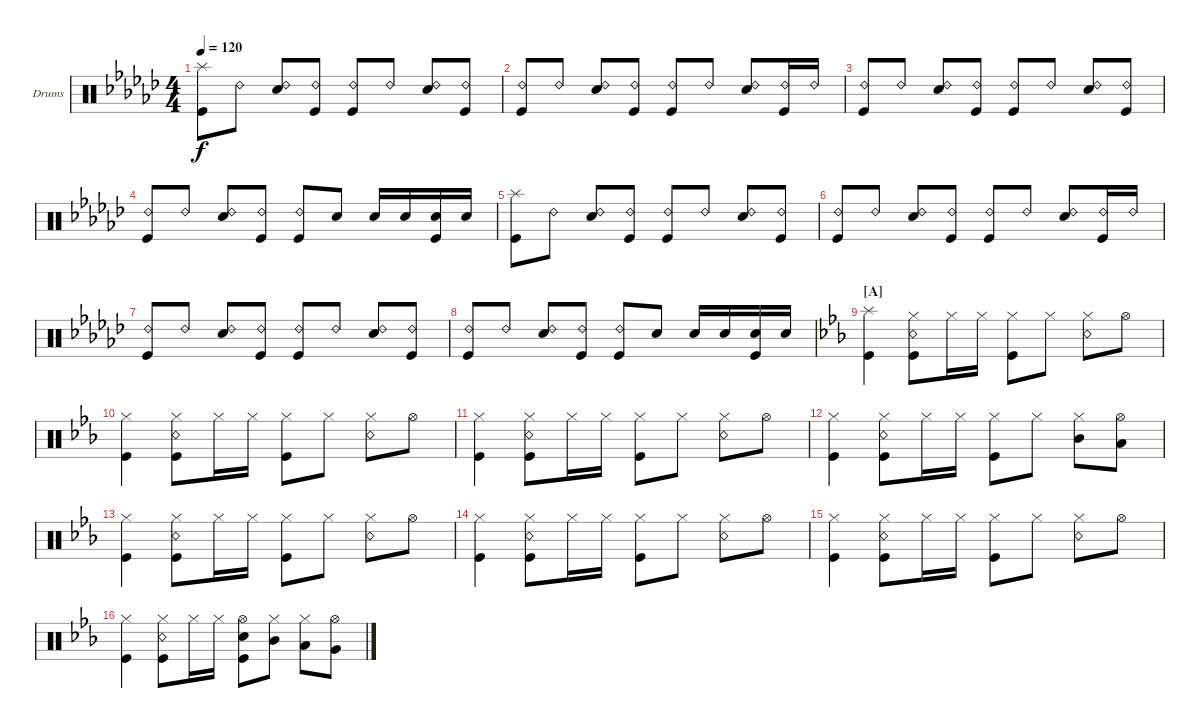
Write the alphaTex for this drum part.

\defaultSystemsLayout 4
\bracketExtendMode groupsimilarinstruments
\firstSystemTrackNameOrientation horizontal
\otherSystemsTrackNameOrientation horizontal
\track ("Drumkit" "Drums") {instrument percussion}
\staff {score}
\articulation defaults
\ts (4 4)
\tempo 120
\clef neutral
\ks ebminor
("Kick (hit)" "Splash (hit)").8{dy f} "Ride (bell) 2".8 ("Ride (bell) 2" "Snare (hit) 2").8 ("Kick (hit)" "Ride (bell) 2").8 ("Ride (bell) 2" "Kick (hit)").8 "Ride (bell) 2".8 ("Ride (bell) 2" "Snare (hit) 2").8 ("Ride (bell) 2" "Kick (hit)").8 |
("Kick (hit)" "Ride (bell) 2").8 "Ride (bell) 2".8 ("Ride (bell) 2" "Snare (hit) 2").8 ("Kick (hit)" "Ride (bell) 2").8 ("Ride (bell) 2" "Kick (hit)").8 "Ride (bell) 2".8 ("Ride (bell) 2" "Snare (hit) 2").8 ("Ride (bell) 2" "Kick (hit)").16 "Ride (bell) 2".16 |
("Kick (hit)" "Ride (bell) 2").8 "Ride (bell) 2".8 ("Ride (bell) 2" "Snare (hit) 2").8 ("Kick (hit)" "Ride (bell) 2").8 ("Ride (bell) 2" "Kick (hit)").8 "Ride (bell) 2".8 ("Ride (bell) 2" "Snare (hit) 2").8 ("Ride (bell) 2" "Kick (hit)").8 |
("Kick (hit)" "Ride (bell) 2").8 "Ride (bell) 2".8 ("Ride (bell) 2" "Snare (hit) 2").8 ("Ride (bell) 2" "Kick (hit)").8 ("Ride (bell) 2" "Kick (hit)").8 "Snare (hit) 2".8 "Snare (hit) 2".16 "Snare (hit) 2".16 ("Snare (hit) 2" "Kick (hit)").16 "Snare (hit) 2".16 |
("Kick (hit)" "Splash (hit)").8 "Ride (bell) 2".8 ("Ride (bell) 2" "Snare (hit) 2").8 ("Kick (hit)" "Ride (bell) 2").8 ("Ride (bell) 2" "Kick (hit)").8 "Ride (bell) 2".8 ("Ride (bell) 2" "Snare (hit) 2").8 ("Ride (bell) 2" "Kick (hit)").8 |
("Kick (hit)" "Ride (bell) 2").8 "Ride (bell) 2".8 ("Ride (bell) 2" "Snare (hit) 2").8 ("Kick (hit)" "Ride (bell) 2").8 ("Ride (bell) 2" "Kick (hit)").8 "Ride (bell) 2".8 ("Ride (bell) 2" "Snare (hit) 2").8 ("Ride (bell) 2" "Kick (hit)").16 "Ride (bell) 2".16 |
("Kick (hit)" "Ride (bell) 2").8 "Ride (bell) 2".8 ("Ride (bell) 2" "Snare (hit) 2").8 ("Kick (hit)" "Ride (bell) 2").8 ("Ride (bell) 2" "Kick (hit)").8 "Ride (bell) 2".8 ("Ride (bell) 2" "Snare (hit) 2").8 ("Ride (bell) 2" "Kick (hit)").8 |
("Kick (hit)" "Ride (bell) 2").8 "Ride (bell) 2".8 ("Ride (bell) 2" "Snare (hit) 2").8 ("Ride (bell) 2" "Kick (hit)").8 ("Ride (bell) 2" "Kick (hit)").8 "Snare (hit) 2".8 "Snare (hit) 2".16 "Snare (hit) 2".16 ("Snare (hit) 2" "Kick (hit)").16 "Snare (hit) 2".16 |
\section ("A" "")
\ks eb
("Kick (hit)" "Splash (hit)").4 ("Snare (rim shot)" "Hi-Hat (closed)" "Kick (hit)").8 "Hi-Hat (closed)".16 "Hi-Hat (closed)".16 ("Hi-Hat (closed)" "Kick (hit)").8 "Hi-Hat (closed)".8 ("Hi-Hat (closed)" "Snare (rim shot)").8 "Hi-Hat (open)".8 |
("Hi-Hat (closed)" "Kick (hit)").4 ("Snare (rim shot)" "Hi-Hat (closed)" "Kick (hit)").8 "Hi-Hat (closed)".16 "Hi-Hat (closed)".16 ("Hi-Hat (closed)" "Kick (hit)").8 "Hi-Hat (closed)".8 ("Hi-Hat (closed)" "Snare (rim shot)").8 "Hi-Hat (open)".8 |
("Hi-Hat (closed)" "Kick (hit)").4 ("Snare (rim shot)" "Hi-Hat (closed)" "Kick (hit)").8 "Hi-Hat (closed)".16 "Hi-Hat (closed)".16 ("Hi-Hat (closed)" "Kick (hit)").8 "Hi-Hat (closed)".8 ("Hi-Hat (closed)" "Snare (rim shot)").8 "Hi-Hat (open)".8 |
("Hi-Hat (closed)" "Kick (hit)").4 ("Snare (rim shot)" "Hi-Hat (closed)" "Kick (hit)").8 "Hi-Hat (closed)".16 "Hi-Hat (closed)".16 ("Hi-Hat (closed)" "Kick (hit)").8 "Hi-Hat (closed)".8 ("Hi-Hat (closed)" "Mid Tom (hit)").8 ("Hi-Hat (open)" "Low Tom (hit)").8 |
("Hi-Hat (closed)" "Kick (hit)").4 ("Snare (rim shot)" "Hi-Hat (closed)" "Kick (hit)").8 "Hi-Hat (closed)".16 "Hi-Hat (closed)".16 ("Hi-Hat (closed)" "Kick (hit)").8 "Hi-Hat (closed)".8 ("Hi-Hat (closed)" "Snare (rim shot)").8 "Hi-Hat (open)".8 |
("Hi-Hat (closed)" "Kick (hit)").4 ("Snare (rim shot)" "Hi-Hat (closed)" "Kick (hit)").8 "Hi-Hat (closed)".16 "Hi-Hat (closed)".16 ("Hi-Hat (closed)" "Kick (hit)").8 "Hi-Hat (closed)".8 ("Hi-Hat (closed)" "Snare (rim shot)").8 "Hi-Hat (open)".8 |
("Hi-Hat (closed)" "Kick (hit)").4 ("Snare (rim shot)" "Hi-Hat (closed)" "Kick (hit)").8 "Hi-Hat (closed)".16 "Hi-Hat (closed)".16 ("Hi-Hat (closed)" "Kick (hit)").8 "Hi-Hat (closed)".8 ("Hi-Hat (closed)" "Snare (rim shot)").8 "Hi-Hat (open)".8 |
("Hi-Hat (closed)" "Kick (hit)").4 ("Snare (rim shot)" "Hi-Hat (closed)" "Kick (hit)").8 "Hi-Hat (closed)".16 "Hi-Hat (closed)".16 ("Hi-Hat (open)" "Kick (hit)" "Snare (hit) 2").8 ("Mid Tom (hit)" "Hi-Hat (closed)").8 ("Low Tom (hit)" "Hi-Hat (closed)").8 ("Very Low Tom (hit)" "Hi-Hat (open)").8
